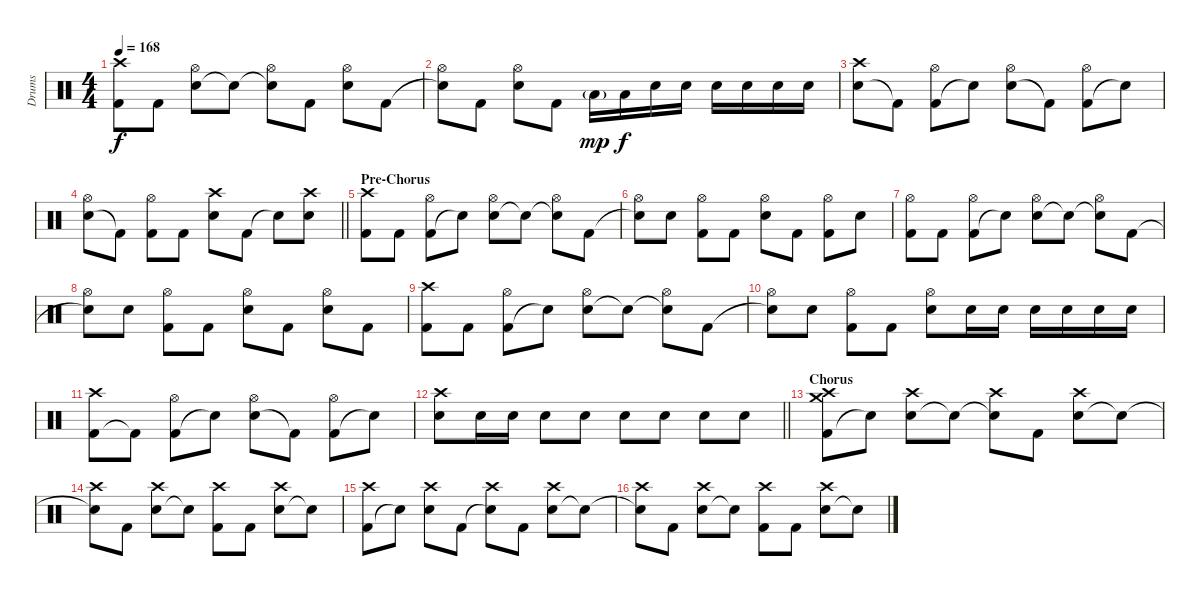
\track ("Drums" "Drums") {instrument percussion}
\staff {score}
\articulation defaults
\ts (4 4)
\tempo 168
\clef neutral
\ks c
("Kick (hit) 2" "Crash high (hit)").8{dy f} "Kick (hit) 2".8 ("Electric Snare (hit)" "Hi-Hat (open)").8 "Snare (hit)"{t}.8 ("Snare (hit)"{t} "Hi-Hat (open)").8 "Kick (hit) 2".8 ("Electric Snare (hit)" "Hi-Hat (open)").8 "Kick (hit) 2".8 |
("Snare (hit)"{t} "Hi-Hat (open)").8 "Kick (hit) 2".8 ("Electric Snare (hit)" "Hi-Hat (open)").8 "Kick (hit) 2".8 "Low Tom (hit)"{g}.16{dy mp} "Low Tom (hit)".16{dy f} "Electric Snare (hit)".16 "Electric Snare (hit)".16 "Electric Snare (hit)".16 "Electric Snare (hit)".16 "Electric Snare (hit)".16 "Electric Snare (hit)".16 |
("Electric Snare (hit)" "Crash high (hit)").8 "Kick (hit) 2"{t}.8 ("Kick (hit) 2" "Hi-Hat (open)").8 "Snare (hit)"{t}.8 ("Electric Snare (hit)" "Hi-Hat (open)").8 "Kick (hit) 2"{t}.8 ("Kick (hit) 2" "Hi-Hat (open)").8 "Snare (hit)"{t}.8 |
\barLineRight lightlight
("Electric Snare (hit)" "Hi-Hat (open)").8 "Kick (hit) 2"{t}.8 ("Kick (hit) 2" "Hi-Hat (open)").8 "Kick (hit) 2".8 ("Electric Snare (hit)" "Crash high (hit)").8 "Kick (hit) 2".8 "Electric Snare (hit)"{t}.8 ("Electric Snare (hit)" "Crash high (hit)").8 |
\section ("" "Pre-Chorus")
("Kick (hit) 2" "Crash high (hit)").8 "Kick (hit) 2".8 ("Kick (hit) 2" "Hi-Hat (open)").8 "Snare (hit)"{t}.8 ("Electric Snare (hit)" "Hi-Hat (open)").8 "Snare (hit)"{t}.8 ("Snare (hit)"{t} "Hi-Hat (open)").8 "Kick (hit) 2".8 |
("Snare (hit)"{t} "Hi-Hat (open)").8 "Electric Snare (hit)".8 ("Kick (hit) 2" "Hi-Hat (open)").8 "Kick (hit) 2".8 ("Electric Snare (hit)" "Hi-Hat (open)").8 "Kick (hit) 2".8 ("Kick (hit) 2" "Hi-Hat (open)").8 "Electric Snare (hit)".8 |
("Kick (hit) 2" "Hi-Hat (open)").8 "Kick (hit) 2".8 ("Kick (hit) 2" "Hi-Hat (open)").8 "Snare (hit)"{t}.8 ("Electric Snare (hit)" "Hi-Hat (open)").8 "Snare (hit)"{t}.8 ("Snare (hit)"{t} "Hi-Hat (open)").8 "Kick (hit) 2".8 |
("Snare (hit)"{t} "Hi-Hat (open)").8 "Electric Snare (hit)".8 ("Kick (hit) 2" "Hi-Hat (open)").8 "Kick (hit) 2".8 ("Electric Snare (hit)" "Hi-Hat (open)").8 "Kick (hit) 2".8 ("Electric Snare (hit)" "Hi-Hat (open)").8 "Kick (hit) 2".8 |
("Kick (hit) 2" "Crash high (hit)").8 "Kick (hit) 2".8 ("Kick (hit) 2" "Hi-Hat (open)").8 "Snare (hit)"{t}.8 ("Electric Snare (hit)" "Hi-Hat (open)").8 "Snare (hit)"{t}.8 ("Snare (hit)"{t} "Hi-Hat (open)").8 "Kick (hit) 2".8 |
("Snare (hit)"{t} "Hi-Hat (open)").8 "Electric Snare (hit)".8 ("Kick (hit) 2" "Hi-Hat (open)").8 "Kick (hit) 2".8 ("Electric Snare (hit)" "Hi-Hat (open)").8 "Electric Snare (hit)".16 "Electric Snare (hit)".16 "Electric Snare (hit)".16 "Electric Snare (hit)".16 "Electric Snare (hit)".16 "Electric Snare (hit)".16 |
("Kick (hit) 2" "Crash high (hit)").8 "Kick (hit) 2"{t}.8 ("Kick (hit) 2" "Hi-Hat (open)").8 "Snare (hit)"{t}.8 ("Electric Snare (hit)" "Hi-Hat (open)").8 "Kick (hit) 2"{t}.8 ("Kick (hit) 2" "Hi-Hat (open)").8 "Snare (hit)"{t}.8 |
\barLineRight lightlight
("Electric Snare (hit)" "Crash high (hit)").8 "Electric Snare (hit)".16 "Electric Snare (hit)".16 "Electric Snare (hit)".8 "Electric Snare (hit)".8 "Electric Snare (hit)".8 "Electric Snare (hit)".8 "Electric Snare (hit)".8 "Electric Snare (hit)".8 |
\section ("" "Chorus")
("Kick (hit) 2" "Crash medium (hit)" "Crash high (hit)").8 "Snare (hit)"{t}.8 ("Electric Snare (hit)" "Crash high (hit)").8 "Snare (hit)"{t}.8 ("Snare (hit)"{t} "Crash high (hit)").8 "Kick (hit) 2".8 ("Electric Snare (hit)" "Crash high (hit)").8 "Snare (hit)"{t}.8 |
("Snare (hit)"{t} "Crash high (hit)").8 "Kick (hit) 2".8 ("Electric Snare (hit)" "Crash high (hit)").8 "Snare (hit)"{t}.8 ("Kick (hit) 2" "Crash high (hit)").8 "Kick (hit) 2".8 ("Electric Snare (hit)" "Crash high (hit)").8 "Snare (hit)"{t}.8 |
("Kick (hit) 2" "Crash high (hit)").8 "Snare (hit)"{t}.8 ("Electric Snare (hit)" "Crash high (hit)").8 "Kick (hit) 2".8 ("Snare (hit)"{t} "Crash high (hit)").8 "Kick (hit) 2".8 ("Electric Snare (hit)" "Crash high (hit)").8 "Snare (hit)"{t}.8 |
("Snare (hit)"{t} "Crash high (hit)").8 "Kick (hit) 2".8 ("Electric Snare (hit)" "Crash high (hit)").8 "Snare (hit)"{t}.8 ("Kick (hit) 2" "Crash high (hit)").8 "Kick (hit) 2".8 ("Electric Snare (hit)" "Crash high (hit)").8 "Snare (hit)"{t}.8
